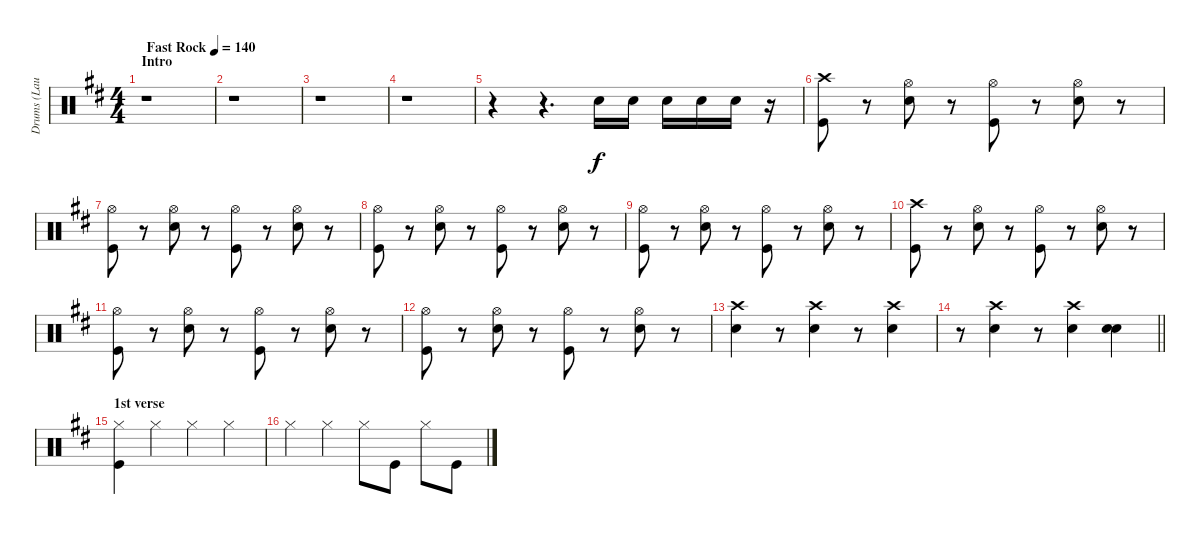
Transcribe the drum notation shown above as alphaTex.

\track ("Drums (Laust Sonne)" "Drums (Lau") {instrument percussion}
\staff {score}
\articulation defaults
\ts (4 4)
\section ("" "Intro")
\tempo (140 "Fast Rock")
\clef neutral
\ks d
r.1{dy f} |
r.1 |
r.1 |
r.1 |
r.4 r.4{d} "Snare (hit) 2".16 "Snare (hit) 2".16 "Snare (hit) 2".16 "Snare (hit) 2".16 "Snare (hit) 2".16 r.16 |
("Crash high (hit)" "Kick (hit)").8 r.8 ("Hi-Hat (open)" "Snare (hit) 2").8 r.8 ("Hi-Hat (open)" "Kick (hit)").8 r.8 ("Hi-Hat (open)" "Snare (hit) 2").8 r.8 |
("Hi-Hat (open)" "Kick (hit)").8 r.8 ("Hi-Hat (open)" "Snare (hit) 2").8 r.8 ("Hi-Hat (open)" "Kick (hit)").8 r.8 ("Hi-Hat (open)" "Snare (hit) 2").8 r.8 |
("Hi-Hat (open)" "Kick (hit)").8 r.8 ("Hi-Hat (open)" "Snare (hit) 2").8 r.8 ("Hi-Hat (open)" "Kick (hit)").8 r.8 ("Hi-Hat (open)" "Snare (hit) 2").8 r.8 |
("Hi-Hat (open)" "Kick (hit)").8 r.8 ("Hi-Hat (open)" "Snare (hit) 2").8 r.8 ("Hi-Hat (open)" "Kick (hit)").8 r.8 ("Hi-Hat (open)" "Snare (hit) 2").8 r.8 |
("Crash high (hit)" "Kick (hit)").8 r.8 ("Hi-Hat (open)" "Snare (hit) 2").8 r.8 ("Hi-Hat (open)" "Kick (hit)").8 r.8 ("Hi-Hat (open)" "Snare (hit) 2").8 r.8 |
("Hi-Hat (open)" "Kick (hit)").8 r.8 ("Hi-Hat (open)" "Snare (hit) 2").8 r.8 ("Hi-Hat (open)" "Kick (hit)").8 r.8 ("Hi-Hat (open)" "Snare (hit) 2").8 r.8 |
("Hi-Hat (open)" "Kick (hit)").8 r.8 ("Hi-Hat (open)" "Snare (hit) 2").8 r.8 ("Hi-Hat (open)" "Kick (hit)").8 r.8 ("Hi-Hat (open)" "Snare (hit) 2").8 r.8 |
("Crash high (hit)" "Snare (hit) 2").4 r.8 ("Crash high (hit)" "Snare (hit) 2").4 r.8 ("Crash high (hit)" "Snare (hit) 2").4 |
\barLineRight lightlight
r.8 ("Crash high (hit)" "Snare (hit) 2").4 r.8 ("Crash high (hit)" "Snare (hit) 2").4 ("Snare (hit) 2" "Snare (hit) 2").4 |
\section ("" "1st verse")
("Hi-Hat (closed)" "Kick (hit)").4 "Hi-Hat (closed)".4 "Hi-Hat (closed)".4 "Hi-Hat (closed)".4 |
"Hi-Hat (closed)".4 "Hi-Hat (closed)".4 "Hi-Hat (closed)".8 "Kick (hit)".8 "Hi-Hat (closed)".8 "Kick (hit)".8
